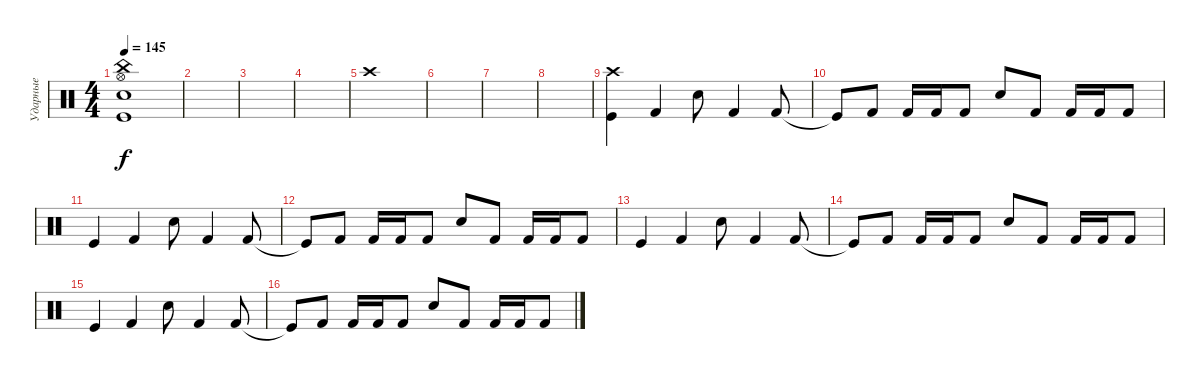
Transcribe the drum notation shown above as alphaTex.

\track ("Ударные" "Ударные") {instrument percussion}
\staff {score}
\articulation defaults
\ts (4 4)
\tempo 145
\clef neutral
\ks c
("China (hit)" "Hi-Hat (open)" "Kick (hit)" "Snare (hit) 2").1{dy f} |
|
|
|
"Crash high (hit)".1 |
|
|
|
("Crash high (hit)" "Kick (hit)").4 "Kick (hit) 2".4 "Electric Snare (hit)".8 "Kick (hit) 2".4 "Kick (hit) 2".8 |
"Kick (hit)"{t}.8 "Kick (hit) 2".8 "Kick (hit) 2".16 "Kick (hit) 2".16 "Kick (hit) 2".8 "Electric Snare (hit)".8 "Kick (hit) 2".8 "Kick (hit) 2".16 "Kick (hit) 2".16 "Kick (hit) 2".8 |
"Kick (hit)".4 "Kick (hit) 2".4 "Electric Snare (hit)".8 "Kick (hit) 2".4 "Kick (hit) 2".8 |
"Kick (hit)"{t}.8 "Kick (hit) 2".8 "Kick (hit) 2".16 "Kick (hit) 2".16 "Kick (hit) 2".8 "Electric Snare (hit)".8 "Kick (hit) 2".8 "Kick (hit) 2".16 "Kick (hit) 2".16 "Kick (hit) 2".8 |
"Kick (hit)".4 "Kick (hit) 2".4 "Electric Snare (hit)".8 "Kick (hit) 2".4 "Kick (hit) 2".8 |
"Kick (hit)"{t}.8 "Kick (hit) 2".8 "Kick (hit) 2".16 "Kick (hit) 2".16 "Kick (hit) 2".8 "Electric Snare (hit)".8 "Kick (hit) 2".8 "Kick (hit) 2".16 "Kick (hit) 2".16 "Kick (hit) 2".8 |
"Kick (hit)".4 "Kick (hit) 2".4 "Electric Snare (hit)".8 "Kick (hit) 2".4 "Kick (hit) 2".8 |
"Kick (hit)"{t}.8 "Kick (hit) 2".8 "Kick (hit) 2".16 "Kick (hit) 2".16 "Kick (hit) 2".8 "Electric Snare (hit)".8 "Kick (hit) 2".8 "Kick (hit) 2".16 "Kick (hit) 2".16 "Kick (hit) 2".8
